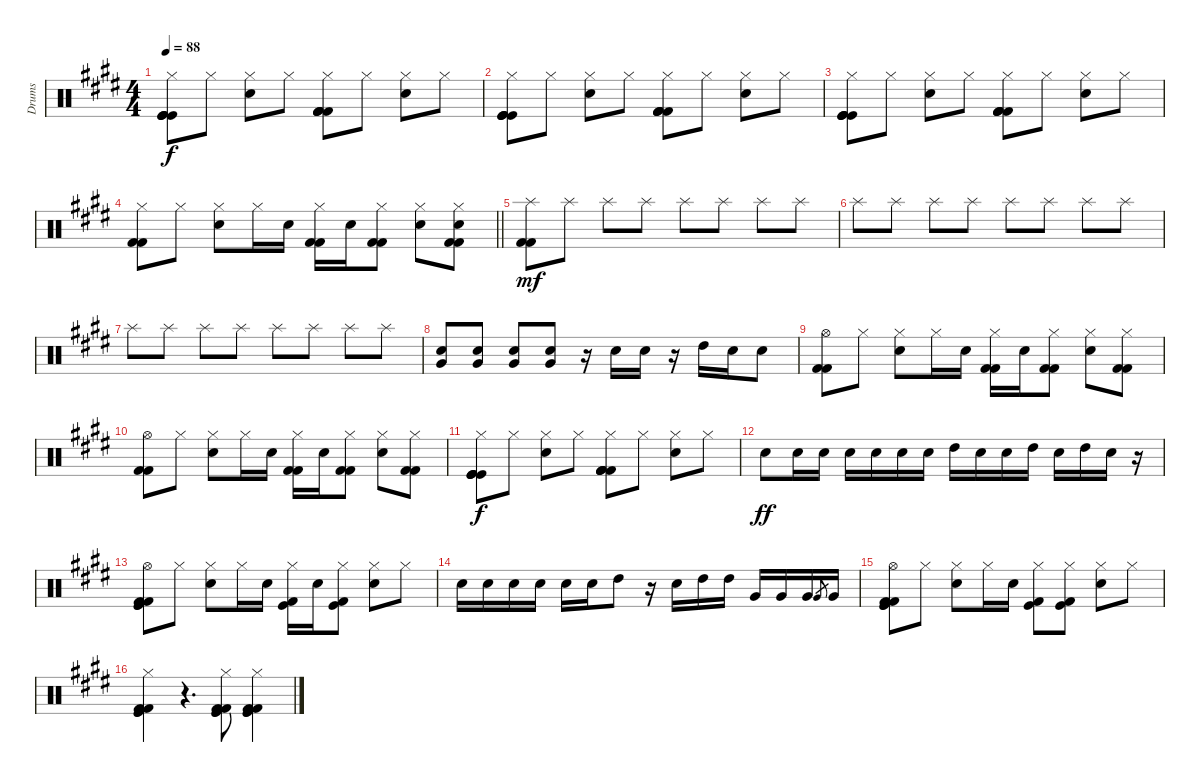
\track ("Drums" "Drums") {instrument percussion}
\staff {score}
\articulation defaults
\ts (4 4)
\tempo 88
\clef neutral
\ks e
("Hi-Hat (closed)" "Kick (hit)" "Kick (hit)" "Kick (hit)" "Kick (hit)").8{dy f} "Hi-Hat (closed)".8 ("Hi-Hat (closed)" "Snare (hit) 2").8 "Hi-Hat (closed)".8 ("Hi-Hat (closed)" "Kick (hit) 2" "Kick (hit) 2" "Kick (hit) 2" "Kick (hit) 2").8 "Hi-Hat (closed)".8 ("Hi-Hat (closed)" "Snare (hit) 2").8 "Hi-Hat (closed)".8 |
("Hi-Hat (closed)" "Kick (hit)" "Kick (hit)" "Kick (hit)" "Kick (hit)").8 "Hi-Hat (closed)".8 ("Hi-Hat (closed)" "Snare (hit) 2").8 "Hi-Hat (closed)".8 ("Hi-Hat (closed)" "Kick (hit) 2" "Kick (hit) 2" "Kick (hit) 2" "Kick (hit) 2").8 "Hi-Hat (closed)".8 ("Hi-Hat (closed)" "Snare (hit) 2").8 "Hi-Hat (closed)".8 |
("Hi-Hat (closed)" "Kick (hit)" "Kick (hit)" "Kick (hit)" "Kick (hit)").8 "Hi-Hat (closed)".8 ("Hi-Hat (closed)" "Snare (hit) 2").8 "Hi-Hat (closed)".8 ("Hi-Hat (closed)" "Kick (hit) 2" "Kick (hit) 2" "Kick (hit) 2" "Kick (hit) 2").8 "Hi-Hat (closed)".8 ("Hi-Hat (closed)" "Snare (hit) 2").8 "Hi-Hat (closed)".8 |
\barLineRight lightlight
("Hi-Hat (closed)" "Kick (hit) 2" "Kick (hit) 2").8 "Hi-Hat (closed)".8 ("Hi-Hat (closed)" "Snare (hit) 2").8 "Hi-Hat (closed)".16 "Snare (hit) 2".16 ("Hi-Hat (closed)" "Kick (hit) 2" "Kick (hit) 2").16 "Snare (hit) 2".16 ("Hi-Hat (closed)" "Kick (hit) 2" "Kick (hit) 2").8 ("Hi-Hat (closed)" "Snare (hit) 2").8 ("Hi-Hat (closed)" "Snare (hit) 2" "Kick (hit) 2" "Kick (hit) 2").8 |
("Splash (hit)" "Kick (hit) 2" "Kick (hit) 2").8{dy mf} "Splash (hit)".8 "Splash (hit)".8 "Splash (hit)".8 "Splash (hit)".8 "Splash (hit)".8 "Splash (hit)".8 "Splash (hit)".8 |
"Splash (hit)".8 "Splash (hit)".8 "Splash (hit)".8 "Splash (hit)".8 "Splash (hit)".8 "Splash (hit)".8 "Splash (hit)".8 "Splash (hit)".8 |
"Splash (hit)".8 "Splash (hit)".8 "Splash (hit)".8 "Splash (hit)".8 "Splash (hit)".8 "Splash (hit)".8 "Splash (hit)".8 "Splash (hit)".8 |
("Snare (hit) 2" "Very Low Tom (hit)").8 ("Snare (hit) 2" "Very Low Tom (hit)").8 ("Snare (hit) 2" "Very Low Tom (hit)").8 ("Snare (hit) 2" "Very Low Tom (hit)").8 r.16 "Snare (hit) 2".16 "Snare (hit) 2".16 r.16 "High Tom (hit)".16 "Snare (hit) 2".16 "Snare (hit) 2".8 |
("Hi-Hat (open)" "Kick (hit) 2" "Kick (hit) 2").8 "Hi-Hat (closed)".8 ("Hi-Hat (closed)" "Snare (hit) 2").8 "Hi-Hat (closed)".16 "Snare (hit) 2".16 ("Hi-Hat (closed)" "Kick (hit) 2" "Kick (hit) 2").16 "Snare (hit) 2".16 ("Hi-Hat (closed)" "Kick (hit) 2" "Kick (hit) 2").8 ("Hi-Hat (closed)" "Snare (hit) 2").8 ("Hi-Hat (closed)" "Kick (hit) 2" "Kick (hit) 2").8 |
("Hi-Hat (open)" "Kick (hit) 2" "Kick (hit) 2").8 "Hi-Hat (closed)".8 ("Hi-Hat (closed)" "Snare (hit) 2").8 "Hi-Hat (closed)".16 "Snare (hit) 2".16 ("Hi-Hat (closed)" "Kick (hit) 2" "Kick (hit) 2").16 "Snare (hit) 2".16 ("Hi-Hat (closed)" "Kick (hit) 2" "Kick (hit) 2").8 ("Hi-Hat (closed)" "Snare (hit) 2").8 ("Hi-Hat (closed)" "Kick (hit) 2" "Kick (hit) 2").8 |
("Hi-Hat (closed)" "Kick (hit)" "Kick (hit)" "Kick (hit)" "Kick (hit)").8{dy f} "Hi-Hat (closed)".8 ("Hi-Hat (closed)" "Snare (hit) 2").8 "Hi-Hat (closed)".8 ("Hi-Hat (closed)" "Kick (hit) 2" "Kick (hit) 2" "Kick (hit) 2" "Kick (hit) 2").8 "Hi-Hat (closed)".8 ("Hi-Hat (closed)" "Snare (hit) 2").8 "Hi-Hat (closed)".8 |
"Snare (hit) 2".8{dy ff} "Snare (hit) 2".16 "Snare (hit) 2".16 "Snare (hit) 2".16 "Snare (hit) 2".16 "Snare (hit) 2".16 "Snare (hit) 2".16 "High Tom (hit)".16 "Snare (hit) 2".16 "Snare (hit) 2".16 "High Tom (hit)".16 "Snare (hit) 2".16 "High Tom (hit)".16 "Snare (hit) 2".16 r.16 |
("Hi-Hat (open)" "Kick (hit) 2" "Kick (hit) 2" "Kick (hit)" "Kick (hit)").8 "Hi-Hat (closed)".8 ("Hi-Hat (closed)" "Snare (hit) 2").8 "Hi-Hat (closed)".16 "Snare (hit) 2".16 ("Hi-Hat (closed)" "Kick (hit) 2" "Kick (hit)").16 "Snare (hit) 2".16 ("Hi-Hat (closed)" "Kick (hit) 2" "Kick (hit)").8 ("Hi-Hat (closed)" "Snare (hit) 2").8 "Hi-Hat (closed)".8 |
"Snare (hit) 2".16 "Snare (hit) 2".16 "Snare (hit) 2".16 "Snare (hit) 2".16 "Snare (hit) 2".16 "Snare (hit) 2".16 "High Tom (hit)".8 r.16 "Snare (hit) 2".16 "High Tom (hit)".16 "High Tom (hit)".16 "Very Low Tom (hit)".16 "Very Low Tom (hit)".16 "Very Low Tom (hit)".16 "Very Low Tom (hit)".8{gr} "Very Low Tom (hit)".16 |
("Hi-Hat (open)" "Kick (hit) 2" "Kick (hit) 2" "Kick (hit)" "Kick (hit)").8 "Hi-Hat (closed)".8 ("Hi-Hat (closed)" "Snare (hit) 2").8 "Hi-Hat (closed)".16 "Snare (hit) 2".16 ("Hi-Hat (closed)" "Kick (hit) 2" "Kick (hit)").8 ("Hi-Hat (closed)" "Kick (hit) 2" "Kick (hit)").8 ("Hi-Hat (closed)" "Snare (hit) 2").8 "Hi-Hat (closed)".8 |
("Hi-Hat (closed)" "Kick (hit) 2" "Kick (hit) 2" "Kick (hit)" "Kick (hit)").4 r.4{d} ("Hi-Hat (closed)" "Kick (hit) 2" "Kick (hit) 2" "Kick (hit)" "Kick (hit)").8 ("Hi-Hat (closed)" "Kick (hit)" "Kick (hit) 2" "Kick (hit)" "Kick (hit) 2").4
